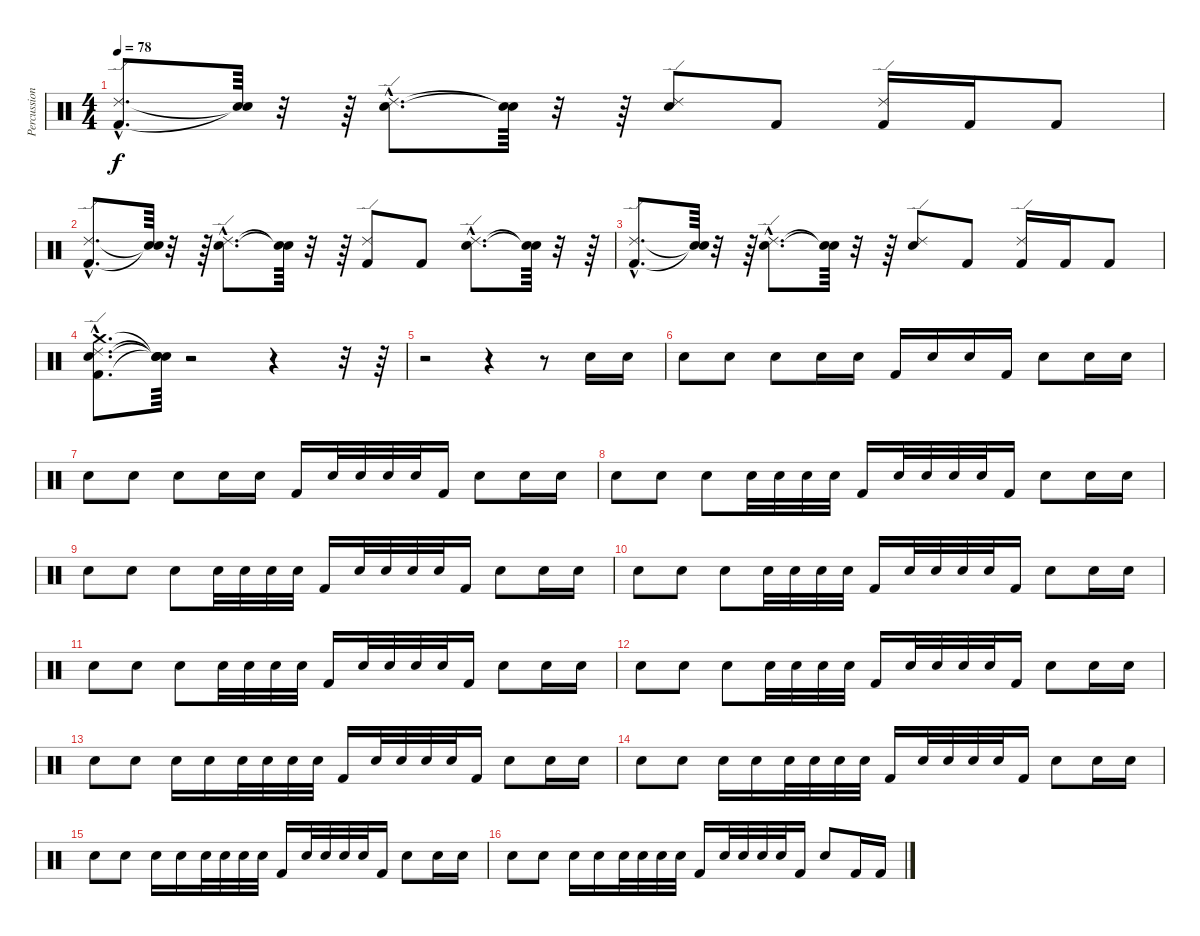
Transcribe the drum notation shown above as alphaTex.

\track ("Percussion" "Percussion") {instrument percussion}
\staff {score}
\articulation defaults
\ts (4 4)
\tempo 78
\clef neutral
\ks c
("Kick (hit) 2"{hac} "Ride (edge) 2"{hac}).8{d dy f} ("Snare (hit)"{t} "Snare (hit)"{t}).64 r.32 r.64 ("Snare (hit) 2"{hac} "Ride (edge) 2"{hac}).8{d} ("Snare (hit)"{t} "Snare (hit)"{t}).64 r.32 r.64 ("Snare (hit) 2" "Ride (edge) 2").8 "Kick (hit) 2".8 ("Kick (hit) 2" "Ride (edge) 2").16 "Kick (hit) 2".16 "Kick (hit) 2".8 |
("Kick (hit) 2"{hac} "Ride (edge) 2"{hac}).8{d} ("Snare (hit)"{t} "Snare (hit)"{t}).64 r.32 r.64 ("Snare (hit) 2"{hac} "Ride (edge) 2"{hac}).8{d} ("Snare (hit)"{t} "Snare (hit)"{t}).64 r.32 r.64 ("Kick (hit) 2" "Ride (edge) 2").8 "Kick (hit) 2".8 ("Snare (hit) 2"{hac} "Ride (edge) 2"{hac}).8{d} ("Snare (hit)"{t} "Snare (hit)"{t}).64 r.32 r.64 |
("Kick (hit) 2"{hac} "Ride (edge) 2"{hac}).8{d} ("Snare (hit)"{t} "Snare (hit)"{t}).64 r.32 r.64 ("Snare (hit) 2"{hac} "Ride (edge) 2"{hac}).8{d} ("Snare (hit)"{t} "Snare (hit)"{t}).64 r.32 r.64 ("Snare (hit) 2" "Ride (edge) 2").8 "Kick (hit) 2".8 ("Kick (hit) 2" "Ride (edge) 2").16 "Kick (hit) 2".16 "Kick (hit) 2".8 |
("Kick (hit) 2"{hac} "Snare (hit) 2"{hac} "Crash medium (hit)"{hac} "Ride (edge) 2"{hac}).8{d} ("Snare (hit)"{t} "Snare (hit)"{t} "Snare (hit)"{t} "Snare (hit)"{t}).64 r.2 r.4 r.32 r.64 |
r.2 r.4 r.8 "Electric Snare (hit)".16 "Electric Snare (hit)".16 |
"Electric Snare (hit)".8 "Electric Snare (hit)".8 "Electric Snare (hit)".8 "Electric Snare (hit)".16 "Electric Snare (hit)".16 "Kick (hit) 2".16 "Electric Snare (hit)".16 "Electric Snare (hit)".16 "Kick (hit) 2".16 "Electric Snare (hit)".8 "Electric Snare (hit)".16 "Electric Snare (hit)".16 |
"Electric Snare (hit)".8 "Electric Snare (hit)".8 "Electric Snare (hit)".8 "Electric Snare (hit)".16 "Electric Snare (hit)".16 "Kick (hit) 2".16 "Electric Snare (hit)".32 "Electric Snare (hit)".32 "Electric Snare (hit)".32 "Electric Snare (hit)".32 "Kick (hit) 2".16 "Electric Snare (hit)".8 "Electric Snare (hit)".16 "Electric Snare (hit)".16 |
"Electric Snare (hit)".8 "Electric Snare (hit)".8 "Electric Snare (hit)".8 "Electric Snare (hit)".32 "Electric Snare (hit)".32 "Electric Snare (hit)".32 "Electric Snare (hit)".32 "Kick (hit) 2".16 "Electric Snare (hit)".32 "Electric Snare (hit)".32 "Electric Snare (hit)".32 "Electric Snare (hit)".32 "Kick (hit) 2".16 "Electric Snare (hit)".8 "Electric Snare (hit)".16 "Electric Snare (hit)".16 |
"Electric Snare (hit)".8 "Electric Snare (hit)".8 "Electric Snare (hit)".8 "Electric Snare (hit)".32 "Electric Snare (hit)".32 "Electric Snare (hit)".32 "Electric Snare (hit)".32 "Kick (hit) 2".16 "Electric Snare (hit)".32 "Electric Snare (hit)".32 "Electric Snare (hit)".32 "Electric Snare (hit)".32 "Kick (hit) 2".16 "Electric Snare (hit)".8 "Electric Snare (hit)".16 "Electric Snare (hit)".16 |
"Electric Snare (hit)".8 "Electric Snare (hit)".8 "Electric Snare (hit)".8 "Electric Snare (hit)".32 "Electric Snare (hit)".32 "Electric Snare (hit)".32 "Electric Snare (hit)".32 "Kick (hit) 2".16 "Electric Snare (hit)".32 "Electric Snare (hit)".32 "Electric Snare (hit)".32 "Electric Snare (hit)".32 "Kick (hit) 2".16 "Electric Snare (hit)".8 "Electric Snare (hit)".16 "Electric Snare (hit)".16 |
"Electric Snare (hit)".8 "Electric Snare (hit)".8 "Electric Snare (hit)".8 "Electric Snare (hit)".32 "Electric Snare (hit)".32 "Electric Snare (hit)".32 "Electric Snare (hit)".32 "Kick (hit) 2".16 "Electric Snare (hit)".32 "Electric Snare (hit)".32 "Electric Snare (hit)".32 "Electric Snare (hit)".32 "Kick (hit) 2".16 "Electric Snare (hit)".8 "Electric Snare (hit)".16 "Electric Snare (hit)".16 |
"Electric Snare (hit)".8 "Electric Snare (hit)".8 "Electric Snare (hit)".8 "Electric Snare (hit)".32 "Electric Snare (hit)".32 "Electric Snare (hit)".32 "Electric Snare (hit)".32 "Kick (hit) 2".16 "Electric Snare (hit)".32 "Electric Snare (hit)".32 "Electric Snare (hit)".32 "Electric Snare (hit)".32 "Kick (hit) 2".16 "Electric Snare (hit)".8 "Electric Snare (hit)".16 "Electric Snare (hit)".16 |
"Electric Snare (hit)".8 "Electric Snare (hit)".8 "Electric Snare (hit)".16 "Electric Snare (hit)".16 "Electric Snare (hit)".32 "Electric Snare (hit)".32 "Electric Snare (hit)".32 "Electric Snare (hit)".32 "Kick (hit) 2".16 "Electric Snare (hit)".32 "Electric Snare (hit)".32 "Electric Snare (hit)".32 "Electric Snare (hit)".32 "Kick (hit) 2".16 "Electric Snare (hit)".8 "Electric Snare (hit)".16 "Electric Snare (hit)".16 |
"Electric Snare (hit)".8 "Electric Snare (hit)".8 "Electric Snare (hit)".16 "Electric Snare (hit)".16 "Electric Snare (hit)".32 "Electric Snare (hit)".32 "Electric Snare (hit)".32 "Electric Snare (hit)".32 "Kick (hit) 2".16 "Electric Snare (hit)".32 "Electric Snare (hit)".32 "Electric Snare (hit)".32 "Electric Snare (hit)".32 "Kick (hit) 2".16 "Electric Snare (hit)".8 "Electric Snare (hit)".16 "Electric Snare (hit)".16 |
"Electric Snare (hit)".8 "Electric Snare (hit)".8 "Electric Snare (hit)".16 "Electric Snare (hit)".16 "Electric Snare (hit)".32 "Electric Snare (hit)".32 "Electric Snare (hit)".32 "Electric Snare (hit)".32 "Kick (hit) 2".16 "Electric Snare (hit)".32 "Electric Snare (hit)".32 "Electric Snare (hit)".32 "Electric Snare (hit)".32 "Kick (hit) 2".16 "Electric Snare (hit)".8 "Electric Snare (hit)".16 "Electric Snare (hit)".16 |
"Electric Snare (hit)".8 "Electric Snare (hit)".8 "Electric Snare (hit)".16 "Electric Snare (hit)".16 "Electric Snare (hit)".32 "Electric Snare (hit)".32 "Electric Snare (hit)".32 "Electric Snare (hit)".32 "Kick (hit) 2".16 "Electric Snare (hit)".32 "Electric Snare (hit)".32 "Electric Snare (hit)".32 "Electric Snare (hit)".32 "Kick (hit) 2".16 "Electric Snare (hit)".8 "Kick (hit) 2".16 "Kick (hit) 2".16
